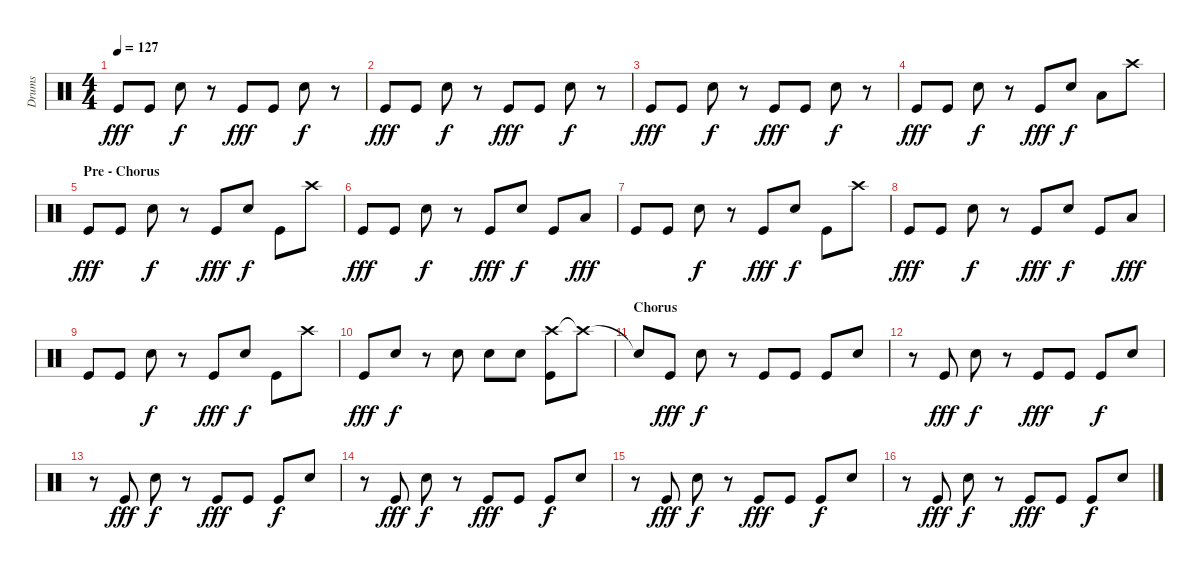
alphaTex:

\track ("Drums" "Drums") {instrument percussion}
\staff {score}
\articulation defaults
\ts (4 4)
\tempo 127
\clef neutral
\ks c "Kick (hit)".8{dy fff} "Kick (hit)".8 "Electric Snare (hit)".8{dy f}
r.8 "Kick (hit)".8{dy fff} "Kick (hit)".8 "Electric Snare (hit)".8{dy f} r.8 |
"Kick (hit)".8{dy fff} "Kick (hit)".8 "Electric Snare (hit)".8{dy f} r.8 "Kick (hit)".8{dy fff} "Kick (hit)".8 "Electric Snare (hit)".8{dy f} r.8 |
"Kick (hit)".8{dy fff} "Kick (hit)".8 "Electric Snare (hit)".8{dy f} r.8 "Kick (hit)".8{dy fff} "Kick (hit)".8 "Electric Snare (hit)".8{dy f} r.8 |
"Kick (hit)".8{dy fff} "Kick (hit)".8 "Electric Snare (hit)".8{dy f} r.8 "Kick (hit)".8{dy fff} "Electric Snare (hit)".8{dy f} "Low Tom (hit)".8 "Crash high (hit)".8 |
\section ("" "Pre - Chorus")
"Kick (hit)".8{dy fff} "Kick (hit)".8 "Electric Snare (hit)".8{dy f} r.8 "Kick (hit)".8{dy fff} "Electric Snare (hit)".8{dy f} "Kick (hit)".8 "Crash high (hit)".8 |
"Kick (hit)".8{dy fff} "Kick (hit)".8 "Electric Snare (hit)".8{dy f} r.8 "Kick (hit)".8{dy fff} "Electric Snare (hit)".8{dy f} "Kick (hit)".8 "Low Tom (hit)".8{dy fff} |
"Kick (hit)".8 "Kick (hit)".8 "Electric Snare (hit)".8{dy f} r.8 "Kick (hit)".8{dy fff} "Electric Snare (hit)".8{dy f} "Kick (hit)".8 "Crash high (hit)".8 |
"Kick (hit)".8{dy fff} "Kick (hit)".8 "Electric Snare (hit)".8{dy f} r.8 "Kick (hit)".8{dy fff} "Electric Snare (hit)".8{dy f} "Kick (hit)".8 "Low Tom (hit)".8{dy fff} |
"Kick (hit)".8 "Kick (hit)".8 "Electric Snare (hit)".8{dy f} r.8 "Kick (hit)".8{dy fff} "Electric Snare (hit)".8{dy f} "Kick (hit)".8 "Crash high (hit)".8 |
"Kick (hit)".8{dy fff} "Electric Snare (hit)".8{dy f} r.8 "Electric Snare (hit)".8 "Electric Snare (hit)".8 "Electric Snare (hit)".8 ("Crash high (hit)" "Kick (hit)").8 "Crash high (hit)"{t}.8 |
\section ("" "Chorus")
"Snare (hit)"{t}.8 "Kick (hit)".8{dy fff} "Electric Snare (hit)".8{dy f} r.8 "Kick (hit)".8 "Kick (hit)".8 "Kick (hit)".8 "Electric Snare (hit)".8 |
r.8 "Kick (hit)".8{dy fff} "Electric Snare (hit)".8{dy f} r.8 "Kick (hit)".8{dy fff} "Kick (hit)".8 "Kick (hit)".8{dy f} "Electric Snare (hit)".8 |
r.8 "Kick (hit)".8{dy fff} "Electric Snare (hit)".8{dy f} r.8 "Kick (hit)".8{dy fff} "Kick (hit)".8 "Kick (hit)".8{dy f} "Electric Snare (hit)".8 |
r.8 "Kick (hit)".8{dy fff} "Electric Snare (hit)".8{dy f} r.8 "Kick (hit)".8{dy fff} "Kick (hit)".8 "Kick (hit)".8{dy f} "Electric Snare (hit)".8 |
r.8 "Kick (hit)".8{dy fff} "Electric Snare (hit)".8{dy f} r.8 "Kick (hit)".8{dy fff} "Kick (hit)".8 "Kick (hit)".8{dy f} "Electric Snare (hit)".8 |
r.8 "Kick (hit)".8{dy fff} "Electric Snare (hit)".8{dy f} r.8 "Kick (hit)".8{dy fff} "Kick (hit)".8 "Kick (hit)".8{dy f} "Electric Snare (hit)".8
